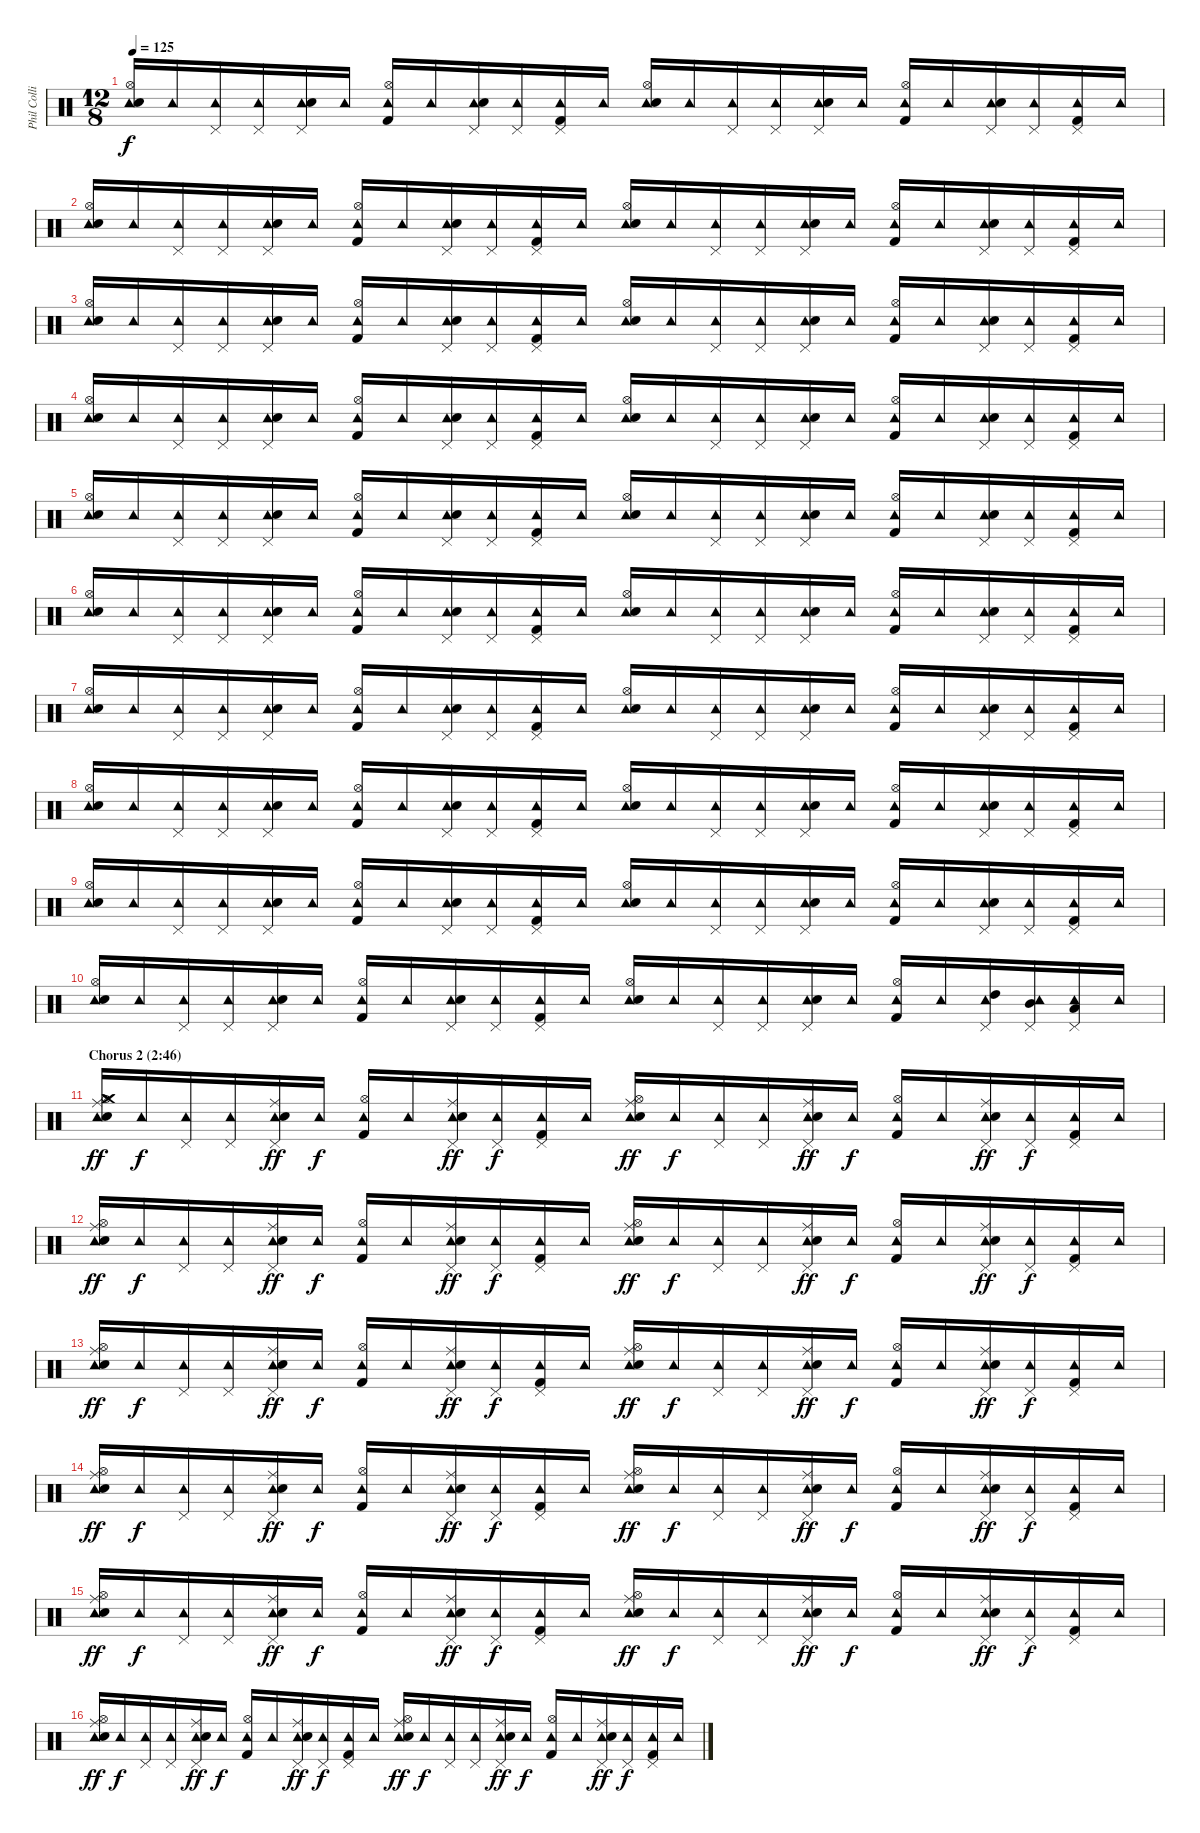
\track ("Phil Collins (drums)" "Phil Colli") {instrument percussion}
\staff {score}
\articulation defaults
\ts (12 8)
\tempo 125
\clef neutral
\ks c
("Tambourine (hit)" "Hi-Hat (open)" "Electric Snare (hit)").16{dy f} "Tambourine (hit)".16 ("Tambourine (hit)" "Pedal Hi-Hat (hit)").16 ("Tambourine (hit)" "Pedal Hi-Hat (hit)").16 ("Tambourine (hit)" "Pedal Hi-Hat (hit)" "Electric Snare (hit)").16 "Tambourine (hit)".16 ("Tambourine (hit)" "Hi-Hat (open)" "Kick (hit) 2").16 "Tambourine (hit)".16 ("Tambourine (hit)" "Pedal Hi-Hat (hit)" "Electric Snare (hit)").16 ("Tambourine (hit)" "Pedal Hi-Hat (hit)").16 ("Tambourine (hit)" "Pedal Hi-Hat (hit)" "Kick (hit) 2").16 "Tambourine (hit)".16 ("Tambourine (hit)" "Hi-Hat (open)" "Electric Snare (hit)").16 "Tambourine (hit)".16 ("Tambourine (hit)" "Pedal Hi-Hat (hit)").16 ("Tambourine (hit)" "Pedal Hi-Hat (hit)").16 ("Tambourine (hit)" "Pedal Hi-Hat (hit)" "Electric Snare (hit)").16 "Tambourine (hit)".16 ("Tambourine (hit)" "Hi-Hat (open)" "Kick (hit) 2").16 "Tambourine (hit)".16 ("Tambourine (hit)" "Pedal Hi-Hat (hit)" "Electric Snare (hit)").16 ("Tambourine (hit)" "Pedal Hi-Hat (hit)").16 ("Tambourine (hit)" "Pedal Hi-Hat (hit)" "Kick (hit) 2").16 "Tambourine (hit)".16 |
("Tambourine (hit)" "Hi-Hat (open)" "Electric Snare (hit)").16 "Tambourine (hit)".16 ("Tambourine (hit)" "Pedal Hi-Hat (hit)").16 ("Tambourine (hit)" "Pedal Hi-Hat (hit)").16 ("Tambourine (hit)" "Pedal Hi-Hat (hit)" "Electric Snare (hit)").16 "Tambourine (hit)".16 ("Tambourine (hit)" "Hi-Hat (open)" "Kick (hit) 2").16 "Tambourine (hit)".16 ("Tambourine (hit)" "Pedal Hi-Hat (hit)" "Electric Snare (hit)").16 ("Tambourine (hit)" "Pedal Hi-Hat (hit)").16 ("Tambourine (hit)" "Pedal Hi-Hat (hit)" "Kick (hit) 2").16 "Tambourine (hit)".16 ("Tambourine (hit)" "Hi-Hat (open)" "Electric Snare (hit)").16 "Tambourine (hit)".16 ("Tambourine (hit)" "Pedal Hi-Hat (hit)").16 ("Tambourine (hit)" "Pedal Hi-Hat (hit)").16 ("Tambourine (hit)" "Pedal Hi-Hat (hit)" "Electric Snare (hit)").16 "Tambourine (hit)".16 ("Tambourine (hit)" "Hi-Hat (open)" "Kick (hit) 2").16 "Tambourine (hit)".16 ("Tambourine (hit)" "Pedal Hi-Hat (hit)" "Electric Snare (hit)").16 ("Tambourine (hit)" "Pedal Hi-Hat (hit)").16 ("Tambourine (hit)" "Pedal Hi-Hat (hit)" "Kick (hit) 2").16 "Tambourine (hit)".16 |
("Tambourine (hit)" "Hi-Hat (open)" "Electric Snare (hit)").16 "Tambourine (hit)".16 ("Tambourine (hit)" "Pedal Hi-Hat (hit)").16 ("Tambourine (hit)" "Pedal Hi-Hat (hit)").16 ("Tambourine (hit)" "Pedal Hi-Hat (hit)" "Electric Snare (hit)").16 "Tambourine (hit)".16 ("Tambourine (hit)" "Hi-Hat (open)" "Kick (hit) 2").16 "Tambourine (hit)".16 ("Tambourine (hit)" "Pedal Hi-Hat (hit)" "Electric Snare (hit)").16 ("Tambourine (hit)" "Pedal Hi-Hat (hit)").16 ("Tambourine (hit)" "Pedal Hi-Hat (hit)" "Kick (hit) 2").16 "Tambourine (hit)".16 ("Tambourine (hit)" "Hi-Hat (open)" "Electric Snare (hit)").16 "Tambourine (hit)".16 ("Tambourine (hit)" "Pedal Hi-Hat (hit)").16 ("Tambourine (hit)" "Pedal Hi-Hat (hit)").16 ("Tambourine (hit)" "Pedal Hi-Hat (hit)" "Electric Snare (hit)").16 "Tambourine (hit)".16 ("Tambourine (hit)" "Hi-Hat (open)" "Kick (hit) 2").16 "Tambourine (hit)".16 ("Tambourine (hit)" "Pedal Hi-Hat (hit)" "Electric Snare (hit)").16 ("Tambourine (hit)" "Pedal Hi-Hat (hit)").16 ("Tambourine (hit)" "Pedal Hi-Hat (hit)" "Kick (hit) 2").16 "Tambourine (hit)".16 |
("Tambourine (hit)" "Hi-Hat (open)" "Electric Snare (hit)").16 "Tambourine (hit)".16 ("Tambourine (hit)" "Pedal Hi-Hat (hit)").16 ("Tambourine (hit)" "Pedal Hi-Hat (hit)").16 ("Tambourine (hit)" "Pedal Hi-Hat (hit)" "Electric Snare (hit)").16 "Tambourine (hit)".16 ("Tambourine (hit)" "Hi-Hat (open)" "Kick (hit) 2").16 "Tambourine (hit)".16 ("Tambourine (hit)" "Pedal Hi-Hat (hit)" "Electric Snare (hit)").16 ("Tambourine (hit)" "Pedal Hi-Hat (hit)").16 ("Tambourine (hit)" "Pedal Hi-Hat (hit)" "Kick (hit) 2").16 "Tambourine (hit)".16 ("Tambourine (hit)" "Hi-Hat (open)" "Electric Snare (hit)").16 "Tambourine (hit)".16 ("Tambourine (hit)" "Pedal Hi-Hat (hit)").16 ("Tambourine (hit)" "Pedal Hi-Hat (hit)").16 ("Tambourine (hit)" "Pedal Hi-Hat (hit)" "Electric Snare (hit)").16 "Tambourine (hit)".16 ("Tambourine (hit)" "Hi-Hat (open)" "Kick (hit) 2").16 "Tambourine (hit)".16 ("Tambourine (hit)" "Pedal Hi-Hat (hit)" "Electric Snare (hit)").16 ("Tambourine (hit)" "Pedal Hi-Hat (hit)").16 ("Tambourine (hit)" "Pedal Hi-Hat (hit)" "Kick (hit) 2").16 "Tambourine (hit)".16 |
("Tambourine (hit)" "Hi-Hat (open)" "Electric Snare (hit)").16 "Tambourine (hit)".16 ("Tambourine (hit)" "Pedal Hi-Hat (hit)").16 ("Tambourine (hit)" "Pedal Hi-Hat (hit)").16 ("Tambourine (hit)" "Pedal Hi-Hat (hit)" "Electric Snare (hit)").16 "Tambourine (hit)".16 ("Tambourine (hit)" "Hi-Hat (open)" "Kick (hit) 2").16 "Tambourine (hit)".16 ("Tambourine (hit)" "Pedal Hi-Hat (hit)" "Electric Snare (hit)").16 ("Tambourine (hit)" "Pedal Hi-Hat (hit)").16 ("Tambourine (hit)" "Pedal Hi-Hat (hit)" "Kick (hit) 2").16 "Tambourine (hit)".16 ("Tambourine (hit)" "Hi-Hat (open)" "Electric Snare (hit)").16 "Tambourine (hit)".16 ("Tambourine (hit)" "Pedal Hi-Hat (hit)").16 ("Tambourine (hit)" "Pedal Hi-Hat (hit)").16 ("Tambourine (hit)" "Pedal Hi-Hat (hit)" "Electric Snare (hit)").16 "Tambourine (hit)".16 ("Tambourine (hit)" "Hi-Hat (open)" "Kick (hit) 2").16 "Tambourine (hit)".16 ("Tambourine (hit)" "Pedal Hi-Hat (hit)" "Electric Snare (hit)").16 ("Tambourine (hit)" "Pedal Hi-Hat (hit)").16 ("Tambourine (hit)" "Pedal Hi-Hat (hit)" "Kick (hit) 2").16 "Tambourine (hit)".16 |
("Tambourine (hit)" "Hi-Hat (open)" "Electric Snare (hit)").16 "Tambourine (hit)".16 ("Tambourine (hit)" "Pedal Hi-Hat (hit)").16 ("Tambourine (hit)" "Pedal Hi-Hat (hit)").16 ("Tambourine (hit)" "Pedal Hi-Hat (hit)" "Electric Snare (hit)").16 "Tambourine (hit)".16 ("Tambourine (hit)" "Hi-Hat (open)" "Kick (hit) 2").16 "Tambourine (hit)".16 ("Tambourine (hit)" "Pedal Hi-Hat (hit)" "Electric Snare (hit)").16 ("Tambourine (hit)" "Pedal Hi-Hat (hit)").16 ("Tambourine (hit)" "Pedal Hi-Hat (hit)" "Kick (hit) 2").16 "Tambourine (hit)".16 ("Tambourine (hit)" "Hi-Hat (open)" "Electric Snare (hit)").16 "Tambourine (hit)".16 ("Tambourine (hit)" "Pedal Hi-Hat (hit)").16 ("Tambourine (hit)" "Pedal Hi-Hat (hit)").16 ("Tambourine (hit)" "Pedal Hi-Hat (hit)" "Electric Snare (hit)").16 "Tambourine (hit)".16 ("Tambourine (hit)" "Hi-Hat (open)" "Kick (hit) 2").16 "Tambourine (hit)".16 ("Tambourine (hit)" "Pedal Hi-Hat (hit)" "Electric Snare (hit)").16 ("Tambourine (hit)" "Pedal Hi-Hat (hit)").16 ("Tambourine (hit)" "Pedal Hi-Hat (hit)" "Kick (hit) 2").16 "Tambourine (hit)".16 |
("Tambourine (hit)" "Hi-Hat (open)" "Electric Snare (hit)").16 "Tambourine (hit)".16 ("Tambourine (hit)" "Pedal Hi-Hat (hit)").16 ("Tambourine (hit)" "Pedal Hi-Hat (hit)").16 ("Tambourine (hit)" "Pedal Hi-Hat (hit)" "Electric Snare (hit)").16 "Tambourine (hit)".16 ("Tambourine (hit)" "Hi-Hat (open)" "Kick (hit) 2").16 "Tambourine (hit)".16 ("Tambourine (hit)" "Pedal Hi-Hat (hit)" "Electric Snare (hit)").16 ("Tambourine (hit)" "Pedal Hi-Hat (hit)").16 ("Tambourine (hit)" "Pedal Hi-Hat (hit)" "Kick (hit) 2").16 "Tambourine (hit)".16 ("Tambourine (hit)" "Hi-Hat (open)" "Electric Snare (hit)").16 "Tambourine (hit)".16 ("Tambourine (hit)" "Pedal Hi-Hat (hit)").16 ("Tambourine (hit)" "Pedal Hi-Hat (hit)").16 ("Tambourine (hit)" "Pedal Hi-Hat (hit)" "Electric Snare (hit)").16 "Tambourine (hit)".16 ("Tambourine (hit)" "Hi-Hat (open)" "Kick (hit) 2").16 "Tambourine (hit)".16 ("Tambourine (hit)" "Pedal Hi-Hat (hit)" "Electric Snare (hit)").16 ("Tambourine (hit)" "Pedal Hi-Hat (hit)").16 ("Tambourine (hit)" "Pedal Hi-Hat (hit)" "Kick (hit) 2").16 "Tambourine (hit)".16 |
("Tambourine (hit)" "Hi-Hat (open)" "Electric Snare (hit)").16 "Tambourine (hit)".16 ("Tambourine (hit)" "Pedal Hi-Hat (hit)").16 ("Tambourine (hit)" "Pedal Hi-Hat (hit)").16 ("Tambourine (hit)" "Pedal Hi-Hat (hit)" "Electric Snare (hit)").16 "Tambourine (hit)".16 ("Tambourine (hit)" "Hi-Hat (open)" "Kick (hit) 2").16 "Tambourine (hit)".16 ("Tambourine (hit)" "Pedal Hi-Hat (hit)" "Electric Snare (hit)").16 ("Tambourine (hit)" "Pedal Hi-Hat (hit)").16 ("Tambourine (hit)" "Pedal Hi-Hat (hit)" "Kick (hit) 2").16 "Tambourine (hit)".16 ("Tambourine (hit)" "Hi-Hat (open)" "Electric Snare (hit)").16 "Tambourine (hit)".16 ("Tambourine (hit)" "Pedal Hi-Hat (hit)").16 ("Tambourine (hit)" "Pedal Hi-Hat (hit)").16 ("Tambourine (hit)" "Pedal Hi-Hat (hit)" "Electric Snare (hit)").16 "Tambourine (hit)".16 ("Tambourine (hit)" "Hi-Hat (open)" "Kick (hit) 2").16 "Tambourine (hit)".16 ("Tambourine (hit)" "Pedal Hi-Hat (hit)" "Electric Snare (hit)").16 ("Tambourine (hit)" "Pedal Hi-Hat (hit)").16 ("Tambourine (hit)" "Pedal Hi-Hat (hit)" "Kick (hit) 2").16 "Tambourine (hit)".16 |
("Tambourine (hit)" "Hi-Hat (open)" "Electric Snare (hit)").16 "Tambourine (hit)".16 ("Tambourine (hit)" "Pedal Hi-Hat (hit)").16 ("Tambourine (hit)" "Pedal Hi-Hat (hit)").16 ("Tambourine (hit)" "Pedal Hi-Hat (hit)" "Electric Snare (hit)").16 "Tambourine (hit)".16 ("Tambourine (hit)" "Hi-Hat (open)" "Kick (hit) 2").16 "Tambourine (hit)".16 ("Tambourine (hit)" "Pedal Hi-Hat (hit)" "Electric Snare (hit)").16 ("Tambourine (hit)" "Pedal Hi-Hat (hit)").16 ("Tambourine (hit)" "Pedal Hi-Hat (hit)" "Kick (hit) 2").16 "Tambourine (hit)".16 ("Tambourine (hit)" "Hi-Hat (open)" "Electric Snare (hit)").16 "Tambourine (hit)".16 ("Tambourine (hit)" "Pedal Hi-Hat (hit)").16 ("Tambourine (hit)" "Pedal Hi-Hat (hit)").16 ("Tambourine (hit)" "Pedal Hi-Hat (hit)" "Electric Snare (hit)").16 "Tambourine (hit)".16 ("Tambourine (hit)" "Hi-Hat (open)" "Kick (hit) 2").16 "Tambourine (hit)".16 ("Tambourine (hit)" "Pedal Hi-Hat (hit)" "Electric Snare (hit)").16 ("Tambourine (hit)" "Pedal Hi-Hat (hit)").16 ("Tambourine (hit)" "Pedal Hi-Hat (hit)" "Kick (hit) 2").16 "Tambourine (hit)".16 |
("Tambourine (hit)" "Hi-Hat (open)" "Electric Snare (hit)").16 "Tambourine (hit)".16 ("Tambourine (hit)" "Pedal Hi-Hat (hit)").16 ("Tambourine (hit)" "Pedal Hi-Hat (hit)").16 ("Tambourine (hit)" "Pedal Hi-Hat (hit)" "Electric Snare (hit)").16 "Tambourine (hit)".16 ("Tambourine (hit)" "Hi-Hat (open)" "Kick (hit) 2").16 "Tambourine (hit)".16 ("Tambourine (hit)" "Pedal Hi-Hat (hit)" "Electric Snare (hit)").16 ("Tambourine (hit)" "Pedal Hi-Hat (hit)").16 ("Tambourine (hit)" "Pedal Hi-Hat (hit)" "Kick (hit) 2").16 "Tambourine (hit)".16 ("Tambourine (hit)" "Hi-Hat (open)" "Electric Snare (hit)").16 "Tambourine (hit)".16 ("Tambourine (hit)" "Pedal Hi-Hat (hit)").16 ("Tambourine (hit)" "Pedal Hi-Hat (hit)").16 ("Tambourine (hit)" "Pedal Hi-Hat (hit)" "Electric Snare (hit)").16 "Tambourine (hit)".16 ("Tambourine (hit)" "Hi-Hat (open)" "Kick (hit) 2").16 "Tambourine (hit)".16 ("Tambourine (hit)" "Pedal Hi-Hat (hit)" "High Tom (hit)").16 ("Tambourine (hit)" "Pedal Hi-Hat (hit)" "Mid Tom (hit)").16 ("Tambourine (hit)" "Pedal Hi-Hat (hit)" "Low Tom (hit)").16 "Tambourine (hit)".16 |
\section ("" "Chorus 2 (2:46)")
("Crash medium (hit)" "Ride (middle)" "Tambourine (hit)" "Hi-Hat (open)" "Electric Snare (hit)").16{dy ff} "Tambourine (hit)".16{dy f} ("Tambourine (hit)" "Pedal Hi-Hat (hit)").16 ("Tambourine (hit)" "Pedal Hi-Hat (hit)").16 ("Ride (middle)" "Tambourine (hit)" "Pedal Hi-Hat (hit)" "Electric Snare (hit)").16{dy ff} "Tambourine (hit)".16{dy f} ("Tambourine (hit)" "Hi-Hat (open)" "Kick (hit) 2").16 "Tambourine (hit)".16 ("Ride (middle)" "Tambourine (hit)" "Pedal Hi-Hat (hit)" "Electric Snare (hit)").16{dy ff} ("Tambourine (hit)" "Pedal Hi-Hat (hit)").16{dy f} ("Tambourine (hit)" "Pedal Hi-Hat (hit)" "Kick (hit) 2").16 "Tambourine (hit)".16 ("Ride (middle)" "Tambourine (hit)" "Hi-Hat (open)" "Electric Snare (hit)").16{dy ff} "Tambourine (hit)".16{dy f} ("Tambourine (hit)" "Pedal Hi-Hat (hit)").16 ("Tambourine (hit)" "Pedal Hi-Hat (hit)").16 ("Ride (middle)" "Tambourine (hit)" "Pedal Hi-Hat (hit)" "Electric Snare (hit)").16{dy ff} "Tambourine (hit)".16{dy f} ("Tambourine (hit)" "Hi-Hat (open)" "Kick (hit) 2").16 "Tambourine (hit)".16 ("Ride (middle)" "Tambourine (hit)" "Pedal Hi-Hat (hit)" "Electric Snare (hit)").16{dy ff} ("Tambourine (hit)" "Pedal Hi-Hat (hit)").16{dy f} ("Tambourine (hit)" "Pedal Hi-Hat (hit)" "Kick (hit) 2").16 "Tambourine (hit)".16 |
("Ride (middle)" "Tambourine (hit)" "Hi-Hat (open)" "Electric Snare (hit)").16{dy ff} "Tambourine (hit)".16{dy f} ("Tambourine (hit)" "Pedal Hi-Hat (hit)").16 ("Tambourine (hit)" "Pedal Hi-Hat (hit)").16 ("Ride (middle)" "Tambourine (hit)" "Pedal Hi-Hat (hit)" "Electric Snare (hit)").16{dy ff} "Tambourine (hit)".16{dy f} ("Tambourine (hit)" "Hi-Hat (open)" "Kick (hit) 2").16 "Tambourine (hit)".16 ("Ride (middle)" "Tambourine (hit)" "Pedal Hi-Hat (hit)" "Electric Snare (hit)").16{dy ff} ("Tambourine (hit)" "Pedal Hi-Hat (hit)").16{dy f} ("Tambourine (hit)" "Pedal Hi-Hat (hit)" "Kick (hit) 2").16 "Tambourine (hit)".16 ("Ride (middle)" "Tambourine (hit)" "Hi-Hat (open)" "Electric Snare (hit)").16{dy ff} "Tambourine (hit)".16{dy f} ("Tambourine (hit)" "Pedal Hi-Hat (hit)").16 ("Tambourine (hit)" "Pedal Hi-Hat (hit)").16 ("Ride (middle)" "Tambourine (hit)" "Pedal Hi-Hat (hit)" "Electric Snare (hit)").16{dy ff} "Tambourine (hit)".16{dy f} ("Tambourine (hit)" "Hi-Hat (open)" "Kick (hit) 2").16 "Tambourine (hit)".16 ("Ride (middle)" "Tambourine (hit)" "Pedal Hi-Hat (hit)" "Electric Snare (hit)").16{dy ff} ("Tambourine (hit)" "Pedal Hi-Hat (hit)").16{dy f} ("Tambourine (hit)" "Pedal Hi-Hat (hit)" "Kick (hit) 2").16 "Tambourine (hit)".16 |
("Ride (middle)" "Tambourine (hit)" "Hi-Hat (open)" "Electric Snare (hit)").16{dy ff} "Tambourine (hit)".16{dy f} ("Tambourine (hit)" "Pedal Hi-Hat (hit)").16 ("Tambourine (hit)" "Pedal Hi-Hat (hit)").16 ("Ride (middle)" "Tambourine (hit)" "Pedal Hi-Hat (hit)" "Electric Snare (hit)").16{dy ff} "Tambourine (hit)".16{dy f} ("Tambourine (hit)" "Hi-Hat (open)" "Kick (hit) 2").16 "Tambourine (hit)".16 ("Ride (middle)" "Tambourine (hit)" "Pedal Hi-Hat (hit)" "Electric Snare (hit)").16{dy ff} ("Tambourine (hit)" "Pedal Hi-Hat (hit)").16{dy f} ("Tambourine (hit)" "Pedal Hi-Hat (hit)" "Kick (hit) 2").16 "Tambourine (hit)".16 ("Ride (middle)" "Tambourine (hit)" "Hi-Hat (open)" "Electric Snare (hit)").16{dy ff} "Tambourine (hit)".16{dy f} ("Tambourine (hit)" "Pedal Hi-Hat (hit)").16 ("Tambourine (hit)" "Pedal Hi-Hat (hit)").16 ("Ride (middle)" "Tambourine (hit)" "Pedal Hi-Hat (hit)" "Electric Snare (hit)").16{dy ff} "Tambourine (hit)".16{dy f} ("Tambourine (hit)" "Hi-Hat (open)" "Kick (hit) 2").16 "Tambourine (hit)".16 ("Ride (middle)" "Tambourine (hit)" "Pedal Hi-Hat (hit)" "Electric Snare (hit)").16{dy ff} ("Tambourine (hit)" "Pedal Hi-Hat (hit)").16{dy f} ("Tambourine (hit)" "Pedal Hi-Hat (hit)" "Kick (hit) 2").16 "Tambourine (hit)".16 |
("Ride (middle)" "Tambourine (hit)" "Hi-Hat (open)" "Electric Snare (hit)").16{dy ff} "Tambourine (hit)".16{dy f} ("Tambourine (hit)" "Pedal Hi-Hat (hit)").16 ("Tambourine (hit)" "Pedal Hi-Hat (hit)").16 ("Ride (middle)" "Tambourine (hit)" "Pedal Hi-Hat (hit)" "Electric Snare (hit)").16{dy ff} "Tambourine (hit)".16{dy f} ("Tambourine (hit)" "Hi-Hat (open)" "Kick (hit) 2").16 "Tambourine (hit)".16 ("Ride (middle)" "Tambourine (hit)" "Pedal Hi-Hat (hit)" "Electric Snare (hit)").16{dy ff} ("Tambourine (hit)" "Pedal Hi-Hat (hit)").16{dy f} ("Tambourine (hit)" "Pedal Hi-Hat (hit)" "Kick (hit) 2").16 "Tambourine (hit)".16 ("Ride (middle)" "Tambourine (hit)" "Hi-Hat (open)" "Electric Snare (hit)").16{dy ff} "Tambourine (hit)".16{dy f} ("Tambourine (hit)" "Pedal Hi-Hat (hit)").16 ("Tambourine (hit)" "Pedal Hi-Hat (hit)").16 ("Ride (middle)" "Tambourine (hit)" "Pedal Hi-Hat (hit)" "Electric Snare (hit)").16{dy ff} "Tambourine (hit)".16{dy f} ("Tambourine (hit)" "Hi-Hat (open)" "Kick (hit) 2").16 "Tambourine (hit)".16 ("Ride (middle)" "Tambourine (hit)" "Pedal Hi-Hat (hit)" "Electric Snare (hit)").16{dy ff} ("Tambourine (hit)" "Pedal Hi-Hat (hit)").16{dy f} ("Tambourine (hit)" "Pedal Hi-Hat (hit)" "Kick (hit) 2").16 "Tambourine (hit)".16 |
("Ride (middle)" "Tambourine (hit)" "Hi-Hat (open)" "Electric Snare (hit)").16{dy ff} "Tambourine (hit)".16{dy f} ("Tambourine (hit)" "Pedal Hi-Hat (hit)").16 ("Tambourine (hit)" "Pedal Hi-Hat (hit)").16 ("Ride (middle)" "Tambourine (hit)" "Pedal Hi-Hat (hit)" "Electric Snare (hit)").16{dy ff} "Tambourine (hit)".16{dy f} ("Tambourine (hit)" "Hi-Hat (open)" "Kick (hit) 2").16 "Tambourine (hit)".16 ("Ride (middle)" "Tambourine (hit)" "Pedal Hi-Hat (hit)" "Electric Snare (hit)").16{dy ff} ("Tambourine (hit)" "Pedal Hi-Hat (hit)").16{dy f} ("Tambourine (hit)" "Pedal Hi-Hat (hit)" "Kick (hit) 2").16 "Tambourine (hit)".16 ("Ride (middle)" "Tambourine (hit)" "Hi-Hat (open)" "Electric Snare (hit)").16{dy ff} "Tambourine (hit)".16{dy f} ("Tambourine (hit)" "Pedal Hi-Hat (hit)").16 ("Tambourine (hit)" "Pedal Hi-Hat (hit)").16 ("Ride (middle)" "Tambourine (hit)" "Pedal Hi-Hat (hit)" "Electric Snare (hit)").16{dy ff} "Tambourine (hit)".16{dy f} ("Tambourine (hit)" "Hi-Hat (open)" "Kick (hit) 2").16 "Tambourine (hit)".16 ("Ride (middle)" "Tambourine (hit)" "Pedal Hi-Hat (hit)" "Electric Snare (hit)").16{dy ff} ("Tambourine (hit)" "Pedal Hi-Hat (hit)").16{dy f} ("Tambourine (hit)" "Pedal Hi-Hat (hit)" "Kick (hit) 2").16 "Tambourine (hit)".16 |
("Ride (middle)" "Tambourine (hit)" "Hi-Hat (open)" "Electric Snare (hit)").16{dy ff} "Tambourine (hit)".16{dy f} ("Tambourine (hit)" "Pedal Hi-Hat (hit)").16 ("Tambourine (hit)" "Pedal Hi-Hat (hit)").16 ("Ride (middle)" "Tambourine (hit)" "Pedal Hi-Hat (hit)" "Electric Snare (hit)").16{dy ff} "Tambourine (hit)".16{dy f} ("Tambourine (hit)" "Hi-Hat (open)" "Kick (hit) 2").16 "Tambourine (hit)".16 ("Ride (middle)" "Tambourine (hit)" "Pedal Hi-Hat (hit)" "Electric Snare (hit)").16{dy ff} ("Tambourine (hit)" "Pedal Hi-Hat (hit)").16{dy f} ("Tambourine (hit)" "Pedal Hi-Hat (hit)" "Kick (hit) 2").16 "Tambourine (hit)".16 ("Ride (middle)" "Tambourine (hit)" "Hi-Hat (open)" "Electric Snare (hit)").16{dy ff} "Tambourine (hit)".16{dy f} ("Tambourine (hit)" "Pedal Hi-Hat (hit)").16 ("Tambourine (hit)" "Pedal Hi-Hat (hit)").16 ("Ride (middle)" "Tambourine (hit)" "Pedal Hi-Hat (hit)" "Electric Snare (hit)").16{dy ff} "Tambourine (hit)".16{dy f} ("Tambourine (hit)" "Hi-Hat (open)" "Kick (hit) 2").16 "Tambourine (hit)".16 ("Ride (middle)" "Tambourine (hit)" "Pedal Hi-Hat (hit)" "Electric Snare (hit)").16{dy ff} ("Tambourine (hit)" "Pedal Hi-Hat (hit)").16{dy f} ("Tambourine (hit)" "Pedal Hi-Hat (hit)" "Kick (hit) 2").16 "Tambourine (hit)".16
